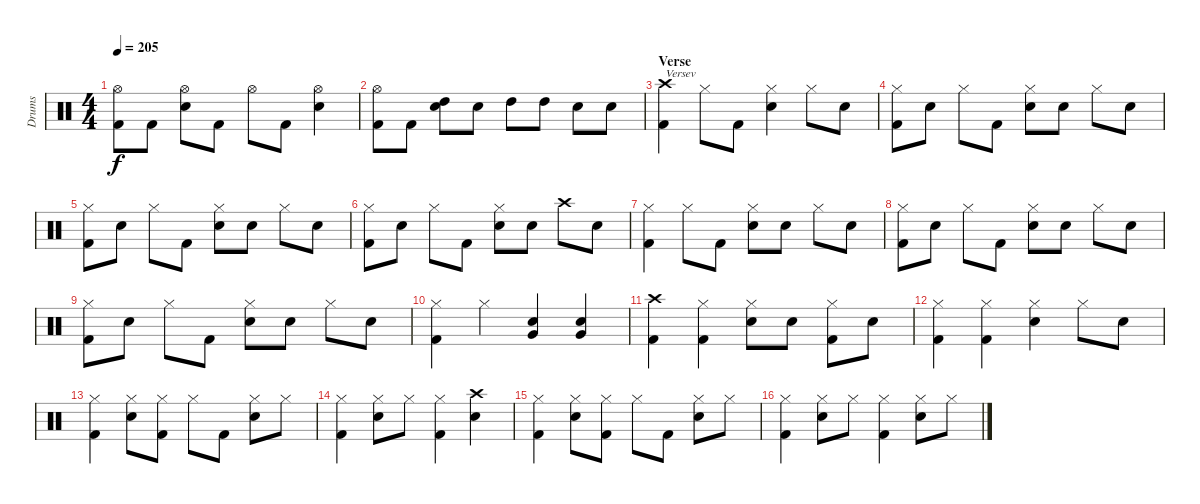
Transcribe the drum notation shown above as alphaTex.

\track ("Drums" "Drums") {instrument percussion}
\staff {score}
\articulation defaults
\ts (4 4)
\tempo 205
\clef neutral
\ks c
("Hi-Hat (open)" "Kick (hit) 2").8{dy f} "Kick (hit) 2".8 ("Hi-Hat (open)" "Electric Snare (hit)").8 "Kick (hit) 2".8 "Hi-Hat (open)".8 "Kick (hit) 2".8 ("Hi-Hat (open)" "Electric Snare (hit)").4 |
("Hi-Hat (open)" "Kick (hit) 2").8 "Kick (hit) 2".8 ("Electric Snare (hit)" "High Tom (hit)").8 "Electric Snare (hit)".8 "High Tom (hit)".8 "High Tom (hit)".8 "Electric Snare (hit)".8 "Electric Snare (hit)".8 |
\section ("" "Verse")
("Crash high (hit)" "Kick (hit) 2").4{txt "Versev"} "Hi-Hat (closed)".8 "Kick (hit) 2".8 ("Hi-Hat (closed)" "Electric Snare (hit)").4 "Hi-Hat (closed)".8 "Electric Snare (hit)".8 |
("Hi-Hat (closed)" "Kick (hit) 2").8 "Electric Snare (hit)".8 "Hi-Hat (closed)".8 "Kick (hit) 2".8 ("Hi-Hat (closed)" "Electric Snare (hit)").8 "Electric Snare (hit)".8 "Hi-Hat (closed)".8 "Electric Snare (hit)".8 |
("Hi-Hat (closed)" "Kick (hit) 2").8 "Electric Snare (hit)".8 "Hi-Hat (closed)".8 "Kick (hit) 2".8 ("Hi-Hat (closed)" "Electric Snare (hit)").8 "Electric Snare (hit)".8 "Hi-Hat (closed)".8 "Electric Snare (hit)".8 |
("Hi-Hat (closed)" "Kick (hit) 2").8 "Electric Snare (hit)".8 "Hi-Hat (closed)".8 "Kick (hit) 2".8 ("Hi-Hat (closed)" "Electric Snare (hit)").8 "Electric Snare (hit)".8 "Crash high (hit)".8 "Electric Snare (hit)".8 |
("Hi-Hat (closed)" "Kick (hit) 2").4 "Hi-Hat (closed)".8 "Kick (hit) 2".8 ("Hi-Hat (closed)" "Electric Snare (hit)").8 "Electric Snare (hit)".8 "Hi-Hat (closed)".8 "Electric Snare (hit)".8 |
("Hi-Hat (closed)" "Kick (hit) 2").8 "Electric Snare (hit)".8 "Hi-Hat (closed)".8 "Kick (hit) 2".8 ("Hi-Hat (closed)" "Electric Snare (hit)").8 "Electric Snare (hit)".8 "Hi-Hat (closed)".8 "Electric Snare (hit)".8 |
("Hi-Hat (closed)" "Kick (hit) 2").8 "Electric Snare (hit)".8 "Hi-Hat (closed)".8 "Kick (hit) 2".8 ("Hi-Hat (closed)" "Electric Snare (hit)").8 "Electric Snare (hit)".8 "Hi-Hat (closed)".8 "Electric Snare (hit)".8 |
("Hi-Hat (closed)" "Kick (hit) 2").4 "Hi-Hat (closed)".4 ("Electric Snare (hit)" "Very Low Tom (hit)").4 ("Electric Snare (hit)" "Very Low Tom (hit)").4 |
("Crash high (hit)" "Kick (hit) 2").4 ("Hi-Hat (closed)" "Kick (hit) 2").4 ("Hi-Hat (closed)" "Electric Snare (hit)").8 "Electric Snare (hit)".8 ("Hi-Hat (closed)" "Kick (hit) 2").8 "Electric Snare (hit)".8 |
("Hi-Hat (closed)" "Kick (hit) 2").4 ("Hi-Hat (closed)" "Kick (hit) 2").4 ("Hi-Hat (closed)" "Electric Snare (hit)").4 "Hi-Hat (closed)".8 "Electric Snare (hit)".8 |
("Hi-Hat (closed)" "Kick (hit) 2").4 ("Hi-Hat (closed)" "Electric Snare (hit)").8 ("Hi-Hat (closed)" "Kick (hit) 2").8 "Hi-Hat (closed)".8 "Kick (hit) 2".8 ("Hi-Hat (closed)" "Electric Snare (hit)").8 "Hi-Hat (closed)".8 |
("Hi-Hat (closed)" "Kick (hit) 2").4 ("Hi-Hat (closed)" "Electric Snare (hit)").8 "Hi-Hat (closed)".8 ("Hi-Hat (closed)" "Kick (hit) 2").4 ("Crash high (hit)" "Electric Snare (hit)").4 |
("Hi-Hat (closed)" "Kick (hit) 2").4 ("Hi-Hat (closed)" "Electric Snare (hit)").8 ("Hi-Hat (closed)" "Kick (hit) 2").8 "Hi-Hat (closed)".8 "Kick (hit) 2".8 ("Hi-Hat (closed)" "Electric Snare (hit)").8 "Hi-Hat (closed)".8 |
("Hi-Hat (closed)" "Kick (hit) 2").4 ("Hi-Hat (closed)" "Electric Snare (hit)").8 "Hi-Hat (closed)".8 ("Hi-Hat (closed)" "Kick (hit) 2").4 ("Hi-Hat (closed)" "Electric Snare (hit)").8 "Hi-Hat (closed)".8
